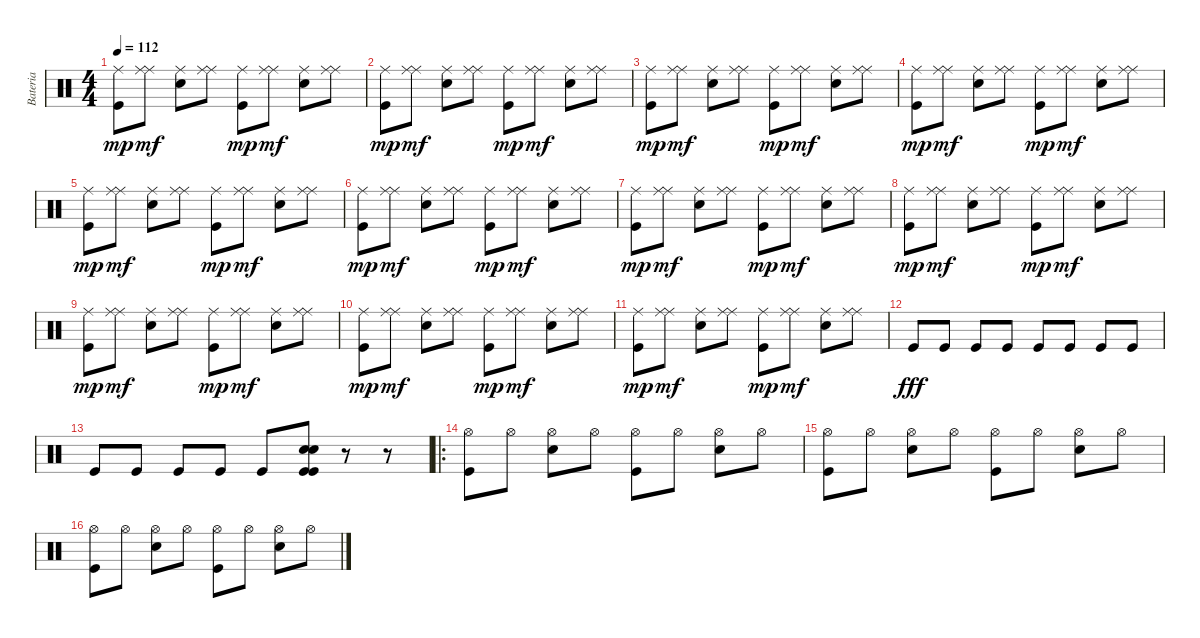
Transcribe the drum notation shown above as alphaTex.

\track ("Bateria" "Bateria") {instrument percussion}
\staff {score}
\articulation defaults
\ts (4 4)
\tempo 112
\clef neutral
\ks c
("Ride (middle)" "Kick (hit)").8{dy mp} ("Ride (middle)" "Ride (middle)").8{dy mf} ("Ride (middle)" "Snare (hit) 2").8 ("Ride (middle)" "Ride (middle)").8 ("Ride (middle)" "Kick (hit)").8{dy mp} ("Ride (middle)" "Ride (middle)").8{dy mf} ("Ride (middle)" "Snare (hit) 2").8 ("Ride (middle)" "Ride (middle)").8 |
("Ride (middle)" "Kick (hit)").8{dy mp} ("Ride (middle)" "Ride (middle)").8{dy mf} ("Ride (middle)" "Snare (hit) 2").8 ("Ride (middle)" "Ride (middle)").8 ("Ride (middle)" "Kick (hit)").8{dy mp} ("Ride (middle)" "Ride (middle)").8{dy mf} ("Ride (middle)" "Snare (hit) 2").8 ("Ride (middle)" "Ride (middle)").8 |
("Ride (middle)" "Kick (hit)").8{dy mp} ("Ride (middle)" "Ride (middle)").8{dy mf} ("Ride (middle)" "Snare (hit) 2").8 ("Ride (middle)" "Ride (middle)").8 ("Ride (middle)" "Kick (hit)").8{dy mp} ("Ride (middle)" "Ride (middle)").8{dy mf} ("Ride (middle)" "Snare (hit) 2").8 ("Ride (middle)" "Ride (middle)").8 |
("Ride (middle)" "Kick (hit)").8{dy mp} ("Ride (middle)" "Ride (middle)").8{dy mf} ("Ride (middle)" "Snare (hit) 2").8 ("Ride (middle)" "Ride (middle)").8 ("Ride (middle)" "Kick (hit)").8{dy mp} ("Ride (middle)" "Ride (middle)").8{dy mf} ("Ride (middle)" "Snare (hit) 2").8 ("Ride (middle)" "Ride (middle)").8 |
("Ride (middle)" "Kick (hit)").8{dy mp} ("Ride (middle)" "Ride (middle)").8{dy mf} ("Ride (middle)" "Snare (hit) 2").8 ("Ride (middle)" "Ride (middle)").8 ("Ride (middle)" "Kick (hit)").8{dy mp} ("Ride (middle)" "Ride (middle)").8{dy mf} ("Ride (middle)" "Snare (hit) 2").8 ("Ride (middle)" "Ride (middle)").8 |
("Ride (middle)" "Kick (hit)").8{dy mp} ("Ride (middle)" "Ride (middle)").8{dy mf} ("Ride (middle)" "Snare (hit) 2").8 ("Ride (middle)" "Ride (middle)").8 ("Ride (middle)" "Kick (hit)").8{dy mp} ("Ride (middle)" "Ride (middle)").8{dy mf} ("Ride (middle)" "Snare (hit) 2").8 ("Ride (middle)" "Ride (middle)").8 |
("Ride (middle)" "Kick (hit)").8{dy mp} ("Ride (middle)" "Ride (middle)").8{dy mf} ("Ride (middle)" "Snare (hit) 2").8 ("Ride (middle)" "Ride (middle)").8 ("Ride (middle)" "Kick (hit)").8{dy mp} ("Ride (middle)" "Ride (middle)").8{dy mf} ("Ride (middle)" "Snare (hit) 2").8 ("Ride (middle)" "Ride (middle)").8 |
("Ride (middle)" "Kick (hit)").8{dy mp} ("Ride (middle)" "Ride (middle)").8{dy mf} ("Ride (middle)" "Snare (hit) 2").8 ("Ride (middle)" "Ride (middle)").8 ("Ride (middle)" "Kick (hit)").8{dy mp} ("Ride (middle)" "Ride (middle)").8{dy mf} ("Ride (middle)" "Snare (hit) 2").8 ("Ride (middle)" "Ride (middle)").8 |
("Ride (middle)" "Kick (hit)").8{dy mp} ("Ride (middle)" "Ride (middle)").8{dy mf} ("Ride (middle)" "Snare (hit) 2").8 ("Ride (middle)" "Ride (middle)").8 ("Ride (middle)" "Kick (hit)").8{dy mp} ("Ride (middle)" "Ride (middle)").8{dy mf} ("Ride (middle)" "Snare (hit) 2").8 ("Ride (middle)" "Ride (middle)").8 |
("Ride (middle)" "Kick (hit)").8{dy mp} ("Ride (middle)" "Ride (middle)").8{dy mf} ("Ride (middle)" "Snare (hit) 2").8 ("Ride (middle)" "Ride (middle)").8 ("Ride (middle)" "Kick (hit)").8{dy mp} ("Ride (middle)" "Ride (middle)").8{dy mf} ("Ride (middle)" "Snare (hit) 2").8 ("Ride (middle)" "Ride (middle)").8 |
("Ride (middle)" "Kick (hit)").8{dy mp} ("Ride (middle)" "Ride (middle)").8{dy mf} ("Ride (middle)" "Snare (hit) 2").8 ("Ride (middle)" "Ride (middle)").8 ("Ride (middle)" "Kick (hit)").8{dy mp} ("Ride (middle)" "Ride (middle)").8{dy mf} ("Ride (middle)" "Snare (hit) 2").8 ("Ride (middle)" "Ride (middle)").8{volume 0} |
"Kick (hit)".8{dy fff volume 13} "Kick (hit)".8 "Kick (hit)".8 "Kick (hit)".8 "Kick (hit)".8 "Kick (hit)".8 "Kick (hit)".8 "Kick (hit)".8 |
"Kick (hit)".8 "Kick (hit)".8 "Kick (hit)".8 "Kick (hit)".8 "Kick (hit)".8 ("Kick (hit)" "Kick (hit)" "Snare (hit) 2" "Snare (hit) 2").8 r.8 r.8 |
\ro
("Hi-Hat (open)" "Kick (hit)").8 "Hi-Hat (open)".8 ("Hi-Hat (open)" "Snare (hit) 2").8 "Hi-Hat (open)".8 ("Hi-Hat (open)" "Kick (hit)").8 "Hi-Hat (open)".8 ("Hi-Hat (open)" "Snare (hit) 2").8 "Hi-Hat (open)".8 |
("Hi-Hat (open)" "Kick (hit)").8 "Hi-Hat (open)".8 ("Hi-Hat (open)" "Snare (hit) 2").8 "Hi-Hat (open)".8 ("Hi-Hat (open)" "Kick (hit)").8 "Hi-Hat (open)".8 ("Hi-Hat (open)" "Snare (hit) 2").8 "Hi-Hat (open)".8 |
("Hi-Hat (open)" "Kick (hit)").8 "Hi-Hat (open)".8 ("Hi-Hat (open)" "Snare (hit) 2").8 "Hi-Hat (open)".8 ("Hi-Hat (open)" "Kick (hit)").8 "Hi-Hat (open)".8 ("Hi-Hat (open)" "Snare (hit) 2").8 "Hi-Hat (open)".8
